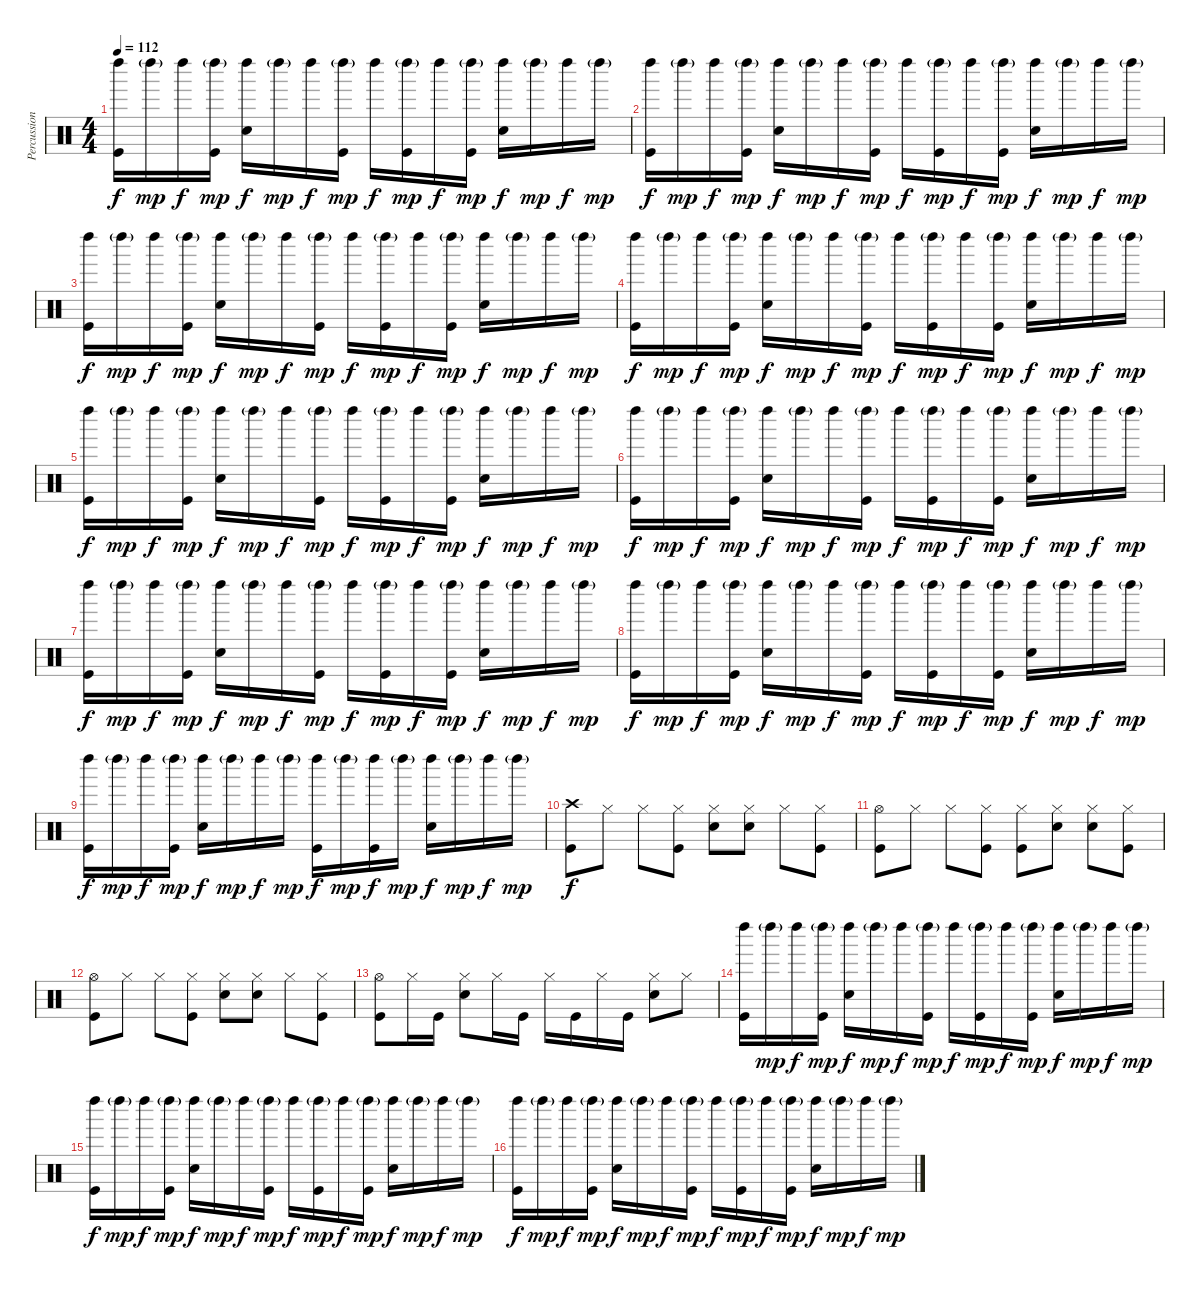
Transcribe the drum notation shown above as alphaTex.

\track ("Percussion" "Percussion") {instrument percussion}
\staff {score}
\articulation defaults
\ts (4 4)
\tempo 112
\clef neutral
\ks c
("Left Maraca (hit)" "Kick (hit)").16{dy f} "Left Maraca (hit)"{g}.16{dy mp} "Left Maraca (hit)".16{dy f} ("Left Maraca (hit)"{g} "Kick (hit)").16{dy mp} ("Left Maraca (hit)" "Snare (hit) 2").16{dy f} "Left Maraca (hit)"{g}.16{dy mp} "Left Maraca (hit)".16{dy f} ("Left Maraca (hit)"{g} "Kick (hit)").16{dy mp} "Left Maraca (hit)".16{dy f} ("Left Maraca (hit)"{g} "Kick (hit)").16{dy mp} "Left Maraca (hit)".16{dy f} ("Left Maraca (hit)"{g} "Kick (hit)").16{dy mp} ("Left Maraca (hit)" "Snare (hit) 2").16{dy f} "Left Maraca (hit)"{g}.16{dy mp} "Left Maraca (hit)".16{dy f} "Left Maraca (hit)"{g}.16{dy mp} |
("Left Maraca (hit)" "Kick (hit)").16{dy f} "Left Maraca (hit)"{g}.16{dy mp} "Left Maraca (hit)".16{dy f} ("Left Maraca (hit)"{g} "Kick (hit)").16{dy mp} ("Left Maraca (hit)" "Snare (hit) 2").16{dy f} "Left Maraca (hit)"{g}.16{dy mp} "Left Maraca (hit)".16{dy f} ("Left Maraca (hit)"{g} "Kick (hit)").16{dy mp} "Left Maraca (hit)".16{dy f} ("Left Maraca (hit)"{g} "Kick (hit)").16{dy mp} "Left Maraca (hit)".16{dy f} ("Left Maraca (hit)"{g} "Kick (hit)").16{dy mp} ("Left Maraca (hit)" "Snare (hit) 2").16{dy f} "Left Maraca (hit)"{g}.16{dy mp} "Left Maraca (hit)".16{dy f} "Left Maraca (hit)"{g}.16{dy mp} |
("Left Maraca (hit)" "Kick (hit)").16{dy f} "Left Maraca (hit)"{g}.16{dy mp} "Left Maraca (hit)".16{dy f} ("Left Maraca (hit)"{g} "Kick (hit)").16{dy mp} ("Left Maraca (hit)" "Snare (hit) 2").16{dy f} "Left Maraca (hit)"{g}.16{dy mp} "Left Maraca (hit)".16{dy f} ("Left Maraca (hit)"{g} "Kick (hit)").16{dy mp} "Left Maraca (hit)".16{dy f} ("Left Maraca (hit)"{g} "Kick (hit)").16{dy mp} "Left Maraca (hit)".16{dy f} ("Left Maraca (hit)"{g} "Kick (hit)").16{dy mp} ("Left Maraca (hit)" "Snare (hit) 2").16{dy f} "Left Maraca (hit)"{g}.16{dy mp} "Left Maraca (hit)".16{dy f} "Left Maraca (hit)"{g}.16{dy mp} |
("Left Maraca (hit)" "Kick (hit)").16{dy f} "Left Maraca (hit)"{g}.16{dy mp} "Left Maraca (hit)".16{dy f} ("Left Maraca (hit)"{g} "Kick (hit)").16{dy mp} ("Left Maraca (hit)" "Snare (hit) 2").16{dy f} "Left Maraca (hit)"{g}.16{dy mp} "Left Maraca (hit)".16{dy f} ("Left Maraca (hit)"{g} "Kick (hit)").16{dy mp} "Left Maraca (hit)".16{dy f} ("Left Maraca (hit)"{g} "Kick (hit)").16{dy mp} "Left Maraca (hit)".16{dy f} ("Left Maraca (hit)"{g} "Kick (hit)").16{dy mp} ("Left Maraca (hit)" "Snare (hit) 2").16{dy f} "Left Maraca (hit)"{g}.16{dy mp} "Left Maraca (hit)".16{dy f} "Left Maraca (hit)"{g}.16{dy mp} |
("Left Maraca (hit)" "Kick (hit)").16{dy f} "Left Maraca (hit)"{g}.16{dy mp} "Left Maraca (hit)".16{dy f} ("Left Maraca (hit)"{g} "Kick (hit)").16{dy mp} ("Left Maraca (hit)" "Snare (hit) 2").16{dy f} "Left Maraca (hit)"{g}.16{dy mp} "Left Maraca (hit)".16{dy f} ("Left Maraca (hit)"{g} "Kick (hit)").16{dy mp} "Left Maraca (hit)".16{dy f} ("Left Maraca (hit)"{g} "Kick (hit)").16{dy mp} "Left Maraca (hit)".16{dy f} ("Left Maraca (hit)"{g} "Kick (hit)").16{dy mp} ("Left Maraca (hit)" "Snare (hit) 2").16{dy f} "Left Maraca (hit)"{g}.16{dy mp} "Left Maraca (hit)".16{dy f} "Left Maraca (hit)"{g}.16{dy mp} |
("Left Maraca (hit)" "Kick (hit)").16{dy f} "Left Maraca (hit)"{g}.16{dy mp} "Left Maraca (hit)".16{dy f} ("Left Maraca (hit)"{g} "Kick (hit)").16{dy mp} ("Left Maraca (hit)" "Snare (hit) 2").16{dy f} "Left Maraca (hit)"{g}.16{dy mp} "Left Maraca (hit)".16{dy f} ("Left Maraca (hit)"{g} "Kick (hit)").16{dy mp} "Left Maraca (hit)".16{dy f} ("Left Maraca (hit)"{g} "Kick (hit)").16{dy mp} "Left Maraca (hit)".16{dy f} ("Left Maraca (hit)"{g} "Kick (hit)").16{dy mp} ("Left Maraca (hit)" "Snare (hit) 2").16{dy f} "Left Maraca (hit)"{g}.16{dy mp} "Left Maraca (hit)".16{dy f} "Left Maraca (hit)"{g}.16{dy mp} |
("Left Maraca (hit)" "Kick (hit)").16{dy f} "Left Maraca (hit)"{g}.16{dy mp} "Left Maraca (hit)".16{dy f} ("Left Maraca (hit)"{g} "Kick (hit)").16{dy mp} ("Left Maraca (hit)" "Snare (hit) 2").16{dy f} "Left Maraca (hit)"{g}.16{dy mp} "Left Maraca (hit)".16{dy f} ("Left Maraca (hit)"{g} "Kick (hit)").16{dy mp} "Left Maraca (hit)".16{dy f} ("Left Maraca (hit)"{g} "Kick (hit)").16{dy mp} "Left Maraca (hit)".16{dy f} ("Left Maraca (hit)"{g} "Kick (hit)").16{dy mp} ("Left Maraca (hit)" "Snare (hit) 2").16{dy f} "Left Maraca (hit)"{g}.16{dy mp} "Left Maraca (hit)".16{dy f} "Left Maraca (hit)"{g}.16{dy mp} |
("Left Maraca (hit)" "Kick (hit)").16{dy f} "Left Maraca (hit)"{g}.16{dy mp} "Left Maraca (hit)".16{dy f} ("Left Maraca (hit)"{g} "Kick (hit)").16{dy mp} ("Left Maraca (hit)" "Snare (hit) 2").16{dy f} "Left Maraca (hit)"{g}.16{dy mp} "Left Maraca (hit)".16{dy f} ("Left Maraca (hit)"{g} "Kick (hit)").16{dy mp} "Left Maraca (hit)".16{dy f} ("Left Maraca (hit)"{g} "Kick (hit)").16{dy mp} "Left Maraca (hit)".16{dy f} ("Left Maraca (hit)"{g} "Kick (hit)").16{dy mp} ("Left Maraca (hit)" "Snare (hit) 2").16{dy f} "Left Maraca (hit)"{g}.16{dy mp} "Left Maraca (hit)".16{dy f} "Left Maraca (hit)"{g}.16{dy mp} |
("Left Maraca (hit)" "Kick (hit)").16{dy f} "Left Maraca (hit)"{g}.16{dy mp} "Left Maraca (hit)".16{dy f} ("Left Maraca (hit)"{g} "Kick (hit)").16{dy mp} ("Left Maraca (hit)" "Snare (hit) 2").16{dy f} "Left Maraca (hit)"{g}.16{dy mp} "Left Maraca (hit)".16{dy f} "Left Maraca (hit)"{g}.16{dy mp} ("Left Maraca (hit)" "Kick (hit)").16{dy f} "Left Maraca (hit)"{g}.16{dy mp} ("Left Maraca (hit)" "Kick (hit)").16{dy f} "Left Maraca (hit)"{g}.16{dy mp} ("Left Maraca (hit)" "Snare (hit) 2").16{dy f} "Left Maraca (hit)"{g}.16{dy mp} "Left Maraca (hit)".16{dy f} "Left Maraca (hit)"{g}.16{dy mp} |
("Crash high (hit)" "Kick (hit)").8{dy f} "Hi-Hat (closed)".8 "Hi-Hat (closed)".8 ("Hi-Hat (closed)" "Kick (hit)").8 ("Hi-Hat (closed)" "Snare (hit) 2").8 ("Hi-Hat (closed)" "Snare (hit) 2").8 "Hi-Hat (closed)".8 ("Hi-Hat (closed)" "Kick (hit)").8 |
("Hi-Hat (open)" "Kick (hit)").8 "Hi-Hat (closed)".8 "Hi-Hat (closed)".8 ("Hi-Hat (closed)" "Kick (hit)").8 ("Hi-Hat (closed)" "Kick (hit)").8 ("Hi-Hat (closed)" "Snare (hit) 2").8 ("Hi-Hat (closed)" "Snare (hit) 2").8 ("Hi-Hat (closed)" "Kick (hit)").8 |
("Hi-Hat (open)" "Kick (hit)").8 "Hi-Hat (closed)".8 "Hi-Hat (closed)".8 ("Hi-Hat (closed)" "Kick (hit)").8 ("Hi-Hat (closed)" "Snare (hit) 2").8 ("Hi-Hat (closed)" "Snare (hit) 2").8 "Hi-Hat (closed)".8 ("Hi-Hat (closed)" "Kick (hit)").8 |
("Hi-Hat (open)" "Kick (hit)").8 "Hi-Hat (closed)".16 "Kick (hit)".16 ("Hi-Hat (closed)" "Snare (hit) 2").8 "Hi-Hat (closed)".16 "Kick (hit)".16 "Hi-Hat (closed)".16 "Kick (hit)".16 "Hi-Hat (closed)".16 "Kick (hit)".16 ("Hi-Hat (closed)" "Snare (hit) 2").8 "Hi-Hat (closed)".8 |
("Left Maraca (hit)" "Kick (hit)").16 "Left Maraca (hit)"{g}.16{dy mp} "Left Maraca (hit)".16{dy f} ("Left Maraca (hit)"{g} "Kick (hit)").16{dy mp} ("Left Maraca (hit)" "Snare (hit) 2").16{dy f} "Left Maraca (hit)"{g}.16{dy mp} "Left Maraca (hit)".16{dy f} ("Left Maraca (hit)"{g} "Kick (hit)").16{dy mp} "Left Maraca (hit)".16{dy f} ("Left Maraca (hit)"{g} "Kick (hit)").16{dy mp} "Left Maraca (hit)".16{dy f} ("Left Maraca (hit)"{g} "Kick (hit)").16{dy mp} ("Left Maraca (hit)" "Snare (hit) 2").16{dy f} "Left Maraca (hit)"{g}.16{dy mp} "Left Maraca (hit)".16{dy f} "Left Maraca (hit)"{g}.16{dy mp} |
("Left Maraca (hit)" "Kick (hit)").16{dy f} "Left Maraca (hit)"{g}.16{dy mp} "Left Maraca (hit)".16{dy f} ("Left Maraca (hit)"{g} "Kick (hit)").16{dy mp} ("Left Maraca (hit)" "Snare (hit) 2").16{dy f} "Left Maraca (hit)"{g}.16{dy mp} "Left Maraca (hit)".16{dy f} ("Left Maraca (hit)"{g} "Kick (hit)").16{dy mp} "Left Maraca (hit)".16{dy f} ("Left Maraca (hit)"{g} "Kick (hit)").16{dy mp} "Left Maraca (hit)".16{dy f} ("Left Maraca (hit)"{g} "Kick (hit)").16{dy mp} ("Left Maraca (hit)" "Snare (hit) 2").16{dy f} "Left Maraca (hit)"{g}.16{dy mp} "Left Maraca (hit)".16{dy f} "Left Maraca (hit)"{g}.16{dy mp} |
("Left Maraca (hit)" "Kick (hit)").16{dy f} "Left Maraca (hit)"{g}.16{dy mp} "Left Maraca (hit)".16{dy f} ("Left Maraca (hit)"{g} "Kick (hit)").16{dy mp} ("Left Maraca (hit)" "Snare (hit) 2").16{dy f} "Left Maraca (hit)"{g}.16{dy mp} "Left Maraca (hit)".16{dy f} ("Left Maraca (hit)"{g} "Kick (hit)").16{dy mp} "Left Maraca (hit)".16{dy f} ("Left Maraca (hit)"{g} "Kick (hit)").16{dy mp} "Left Maraca (hit)".16{dy f} ("Left Maraca (hit)"{g} "Kick (hit)").16{dy mp} ("Left Maraca (hit)" "Snare (hit) 2").16{dy f} "Left Maraca (hit)"{g}.16{dy mp} "Left Maraca (hit)".16{dy f} "Left Maraca (hit)"{g}.16{dy mp}
